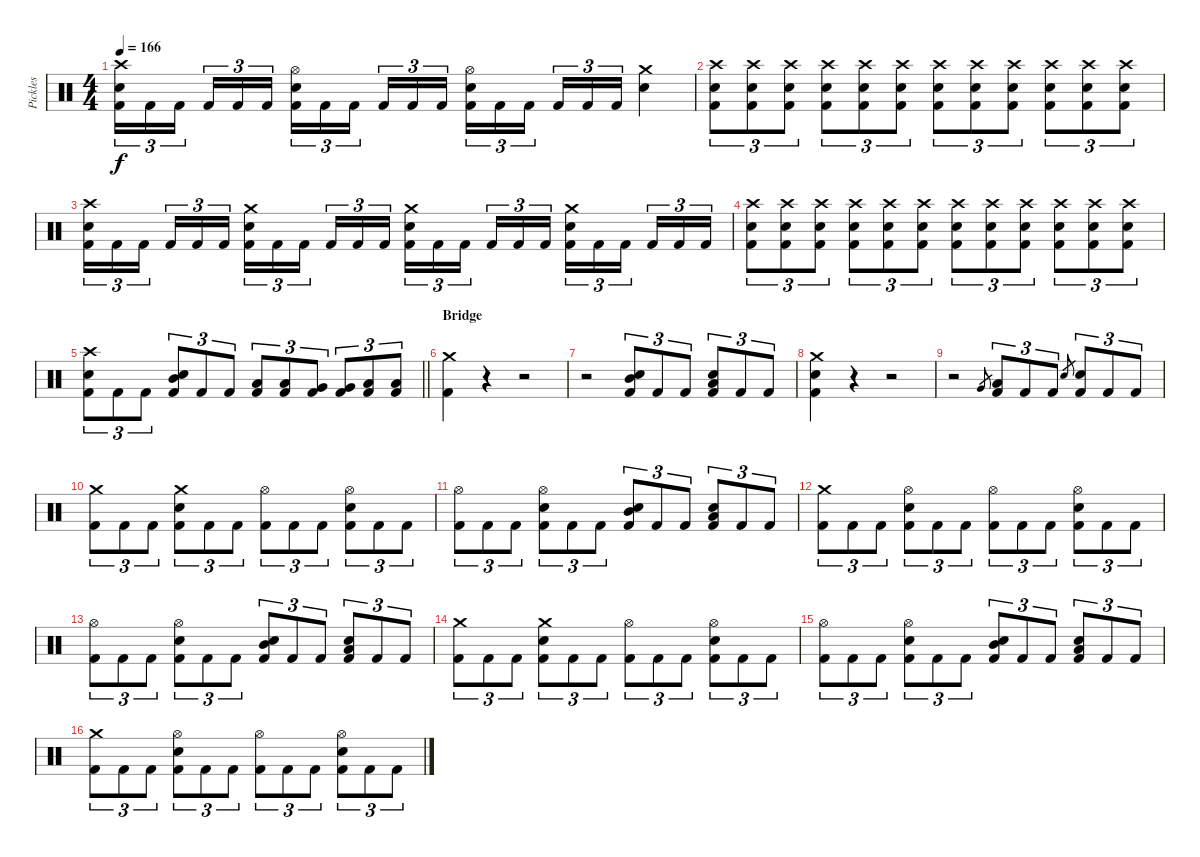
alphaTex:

\track ("Pickles" "Pickles") {instrument percussion}
\staff {score}
\articulation defaults
\ts (4 4)
\tempo 166
\clef neutral
\ks c
("Crash high (hit)" "Snare (hit) 2" "Kick (hit) 2").16{tu (3 2) dy f} "Kick (hit) 2".16{tu (3 2)} "Kick (hit) 2".16{tu (3 2) beam splitsecondary} "Kick (hit) 2".16{tu (3 2)} "Kick (hit) 2".16{tu (3 2)} "Kick (hit) 2".16{tu (3 2)} ("Hi-Hat (open)" "Snare (hit) 2" "Kick (hit) 2").16{tu (3 2)} "Kick (hit) 2".16{tu (3 2)} "Kick (hit) 2".16{tu (3 2) beam splitsecondary} "Kick (hit) 2".16{tu (3 2)} "Kick (hit) 2".16{tu (3 2)} "Kick (hit) 2".16{tu (3 2)} ("Hi-Hat (open)" "Snare (hit) 2" "Kick (hit) 2").16{tu (3 2)} "Kick (hit) 2".16{tu (3 2)} "Kick (hit) 2".16{tu (3 2) beam splitsecondary} "Kick (hit) 2".16{tu (3 2)} "Kick (hit) 2".16{tu (3 2)} "Kick (hit) 2".16{tu (3 2)} ("Crash medium (hit)" "Snare (hit) 2").4 |
("Crash high (hit)" "Snare (hit) 2" "Kick (hit) 2").8{tu (3 2)} ("Crash high (hit)" "Snare (hit) 2" "Kick (hit) 2").8{tu (3 2)} ("Crash high (hit)" "Snare (hit) 2" "Kick (hit) 2").8{tu (3 2)} ("Crash high (hit)" "Snare (hit) 2" "Kick (hit) 2").8{tu (3 2)} ("Crash high (hit)" "Snare (hit) 2" "Kick (hit) 2").8{tu (3 2)} ("Crash high (hit)" "Snare (hit) 2" "Kick (hit) 2").8{tu (3 2)} ("Crash high (hit)" "Snare (hit) 2" "Kick (hit) 2").8{tu (3 2)} ("Crash high (hit)" "Snare (hit) 2" "Kick (hit) 2").8{tu (3 2)} ("Crash high (hit)" "Snare (hit) 2" "Kick (hit) 2").8{tu (3 2)} ("Crash high (hit)" "Snare (hit) 2" "Kick (hit) 2").8{tu (3 2)} ("Crash high (hit)" "Snare (hit) 2" "Kick (hit) 2").8{tu (3 2)} ("Crash high (hit)" "Snare (hit) 2" "Kick (hit) 2").8{tu (3 2)} |
("Crash high (hit)" "Snare (hit) 2" "Kick (hit) 2").16{tu (3 2)} "Kick (hit) 2".16{tu (3 2)} "Kick (hit) 2".16{tu (3 2) beam splitsecondary} "Kick (hit) 2".16{tu (3 2)} "Kick (hit) 2".16{tu (3 2)} "Kick (hit) 2".16{tu (3 2)} ("Crash medium (hit)" "Snare (hit) 2" "Kick (hit) 2").16{tu (3 2)} "Kick (hit) 2".16{tu (3 2)} "Kick (hit) 2".16{tu (3 2) beam splitsecondary} "Kick (hit) 2".16{tu (3 2)} "Kick (hit) 2".16{tu (3 2)} "Kick (hit) 2".16{tu (3 2)} ("Crash medium (hit)" "Snare (hit) 2" "Kick (hit) 2").16{tu (3 2)} "Kick (hit) 2".16{tu (3 2)} "Kick (hit) 2".16{tu (3 2) beam splitsecondary} "Kick (hit) 2".16{tu (3 2)} "Kick (hit) 2".16{tu (3 2)} "Kick (hit) 2".16{tu (3 2)} ("Crash medium (hit)" "Snare (hit) 2" "Kick (hit) 2").16{tu (3 2)} "Kick (hit) 2".16{tu (3 2)} "Kick (hit) 2".16{tu (3 2) beam splitsecondary} "Kick (hit) 2".16{tu (3 2)} "Kick (hit) 2".16{tu (3 2)} "Kick (hit) 2".16{tu (3 2)} |
("Crash high (hit)" "Snare (hit) 2" "Kick (hit) 2").8{tu (3 2)} ("Crash high (hit)" "Snare (hit) 2" "Kick (hit) 2").8{tu (3 2)} ("Crash high (hit)" "Snare (hit) 2" "Kick (hit) 2").8{tu (3 2)} ("Crash high (hit)" "Snare (hit) 2" "Kick (hit) 2").8{tu (3 2)} ("Crash high (hit)" "Snare (hit) 2" "Kick (hit) 2").8{tu (3 2)} ("Crash high (hit)" "Snare (hit) 2" "Kick (hit) 2").8{tu (3 2)} ("Crash high (hit)" "Snare (hit) 2" "Kick (hit) 2").8{tu (3 2)} ("Crash high (hit)" "Snare (hit) 2" "Kick (hit) 2").8{tu (3 2)} ("Crash high (hit)" "Snare (hit) 2" "Kick (hit) 2").8{tu (3 2)} ("Crash high (hit)" "Snare (hit) 2" "Kick (hit) 2").8{tu (3 2)} ("Crash high (hit)" "Snare (hit) 2" "Kick (hit) 2").8{tu (3 2)} ("Crash high (hit)" "Snare (hit) 2" "Kick (hit) 2").8{tu (3 2)} |
\barLineRight lightlight
("Crash high (hit)" "Snare (hit) 2" "Kick (hit) 2").8{tu (3 2)} "Kick (hit) 2".8{tu (3 2)} "Kick (hit) 2".8{tu (3 2)} ("Mid Tom (hit)" "Snare (hit) 2" "Kick (hit) 2").8{tu (3 2)} "Kick (hit) 2".8{tu (3 2)} "Kick (hit) 2".8{tu (3 2)} ("Low Tom (hit)" "Kick (hit) 2").8{tu (3 2)} ("Low Tom (hit)" "Kick (hit) 2").8{tu (3 2)} ("Very Low Tom (hit)" "Kick (hit) 2").8{tu (3 2)} ("Very Low Tom (hit)" "Kick (hit) 2").8{tu (3 2)} ("Low Floor Tom (hit)" "Kick (hit) 2").8{tu (3 2)} ("Low Floor Tom (hit)" "Kick (hit) 2").8{tu (3 2)} |
\section ("" "Bridge")
("Crash medium (hit)" "Kick (hit) 2").4 r.4 r.2 |
r.2 ("Mid Tom (hit)" "Snare (hit) 2" "Kick (hit) 2").8{tu (3 2)} "Kick (hit) 2".8{tu (3 2)} "Kick (hit) 2".8{tu (3 2)} ("Low Tom (hit)" "Snare (hit) 2" "Kick (hit) 2").8{tu (3 2)} "Kick (hit) 2".8{tu (3 2)} "Kick (hit) 2".8{tu (3 2)} |
("Crash medium (hit)" "Snare (hit) 2" "Kick (hit) 2").4 r.4 r.2 |
r.2 "Very Low Tom (hit)".8{gr} ("Low Floor Tom (hit)" "Kick (hit) 2").8{tu (3 2)} "Kick (hit) 2".8{tu (3 2)} "Kick (hit) 2".8{tu (3 2)} "Snare (hit) 2".8{gr} ("Snare (hit) 2" "Kick (hit) 2").8{tu (3 2)} "Kick (hit) 2".8{tu (3 2)} "Kick (hit) 2".8{tu (3 2)} |
("Crash medium (hit)" "Kick (hit) 2").8{tu (3 2)} "Kick (hit) 2".8{tu (3 2)} "Kick (hit) 2".8{tu (3 2)} ("Crash medium (hit)" "Snare (hit) 2" "Kick (hit) 2").8{tu (3 2)} "Kick (hit) 2".8{tu (3 2)} "Kick (hit) 2".8{tu (3 2)} ("Hi-Hat (open)" "Kick (hit) 2").8{tu (3 2)} "Kick (hit) 2".8{tu (3 2)} "Kick (hit) 2".8{tu (3 2)} ("Hi-Hat (open)" "Snare (hit) 2" "Kick (hit) 2").8{tu (3 2)} "Kick (hit) 2".8{tu (3 2)} "Kick (hit) 2".8{tu (3 2)} |
("Hi-Hat (open)" "Kick (hit) 2").8{tu (3 2)} "Kick (hit) 2".8{tu (3 2)} "Kick (hit) 2".8{tu (3 2)} ("Hi-Hat (open)" "Snare (hit) 2" "Kick (hit) 2").8{tu (3 2)} "Kick (hit) 2".8{tu (3 2)} "Kick (hit) 2".8{tu (3 2)} ("Mid Tom (hit)" "Snare (hit) 2" "Kick (hit) 2").8{tu (3 2)} "Kick (hit) 2".8{tu (3 2)} "Kick (hit) 2".8{tu (3 2)} ("Low Tom (hit)" "Snare (hit) 2" "Kick (hit) 2").8{tu (3 2)} "Kick (hit) 2".8{tu (3 2)} "Kick (hit) 2".8{tu (3 2)} |
("Crash medium (hit)" "Kick (hit) 2").8{tu (3 2)} "Kick (hit) 2".8{tu (3 2)} "Kick (hit) 2".8{tu (3 2)} ("Hi-Hat (open)" "Snare (hit) 2" "Kick (hit) 2").8{tu (3 2)} "Kick (hit) 2".8{tu (3 2)} "Kick (hit) 2".8{tu (3 2)} ("Hi-Hat (open)" "Kick (hit) 2").8{tu (3 2)} "Kick (hit) 2".8{tu (3 2)} "Kick (hit) 2".8{tu (3 2)} ("Hi-Hat (open)" "Snare (hit) 2" "Kick (hit) 2").8{tu (3 2)} "Kick (hit) 2".8{tu (3 2)} "Kick (hit) 2".8{tu (3 2)} |
("Hi-Hat (open)" "Kick (hit) 2").8{tu (3 2)} "Kick (hit) 2".8{tu (3 2)} "Kick (hit) 2".8{tu (3 2)} ("Hi-Hat (open)" "Snare (hit) 2" "Kick (hit) 2").8{tu (3 2)} "Kick (hit) 2".8{tu (3 2)} "Kick (hit) 2".8{tu (3 2)} ("Mid Tom (hit)" "Snare (hit) 2" "Kick (hit) 2").8{tu (3 2)} "Kick (hit) 2".8{tu (3 2)} "Kick (hit) 2".8{tu (3 2)} ("Low Tom (hit)" "Snare (hit) 2" "Kick (hit) 2").8{tu (3 2)} "Kick (hit) 2".8{tu (3 2)} "Kick (hit) 2".8{tu (3 2)} |
("Crash medium (hit)" "Kick (hit) 2").8{tu (3 2)} "Kick (hit) 2".8{tu (3 2)} "Kick (hit) 2".8{tu (3 2)} ("Crash medium (hit)" "Snare (hit) 2" "Kick (hit) 2").8{tu (3 2)} "Kick (hit) 2".8{tu (3 2)} "Kick (hit) 2".8{tu (3 2)} ("Hi-Hat (open)" "Kick (hit) 2").8{tu (3 2)} "Kick (hit) 2".8{tu (3 2)} "Kick (hit) 2".8{tu (3 2)} ("Hi-Hat (open)" "Snare (hit) 2" "Kick (hit) 2").8{tu (3 2)} "Kick (hit) 2".8{tu (3 2)} "Kick (hit) 2".8{tu (3 2)} |
("Hi-Hat (open)" "Kick (hit) 2").8{tu (3 2)} "Kick (hit) 2".8{tu (3 2)} "Kick (hit) 2".8{tu (3 2)} ("Hi-Hat (open)" "Snare (hit) 2" "Kick (hit) 2").8{tu (3 2)} "Kick (hit) 2".8{tu (3 2)} "Kick (hit) 2".8{tu (3 2)} ("Mid Tom (hit)" "Snare (hit) 2" "Kick (hit) 2").8{tu (3 2)} "Kick (hit) 2".8{tu (3 2)} "Kick (hit) 2".8{tu (3 2)} ("Low Tom (hit)" "Snare (hit) 2" "Kick (hit) 2").8{tu (3 2)} "Kick (hit) 2".8{tu (3 2)} "Kick (hit) 2".8{tu (3 2)} |
("Crash medium (hit)" "Kick (hit) 2").8{tu (3 2)} "Kick (hit) 2".8{tu (3 2)} "Kick (hit) 2".8{tu (3 2)} ("Hi-Hat (open)" "Snare (hit) 2" "Kick (hit) 2").8{tu (3 2)} "Kick (hit) 2".8{tu (3 2)} "Kick (hit) 2".8{tu (3 2)} ("Hi-Hat (open)" "Kick (hit) 2").8{tu (3 2)} "Kick (hit) 2".8{tu (3 2)} "Kick (hit) 2".8{tu (3 2)} ("Hi-Hat (open)" "Snare (hit) 2" "Kick (hit) 2").8{tu (3 2)} "Kick (hit) 2".8{tu (3 2)} "Kick (hit) 2".8{tu (3 2)}
